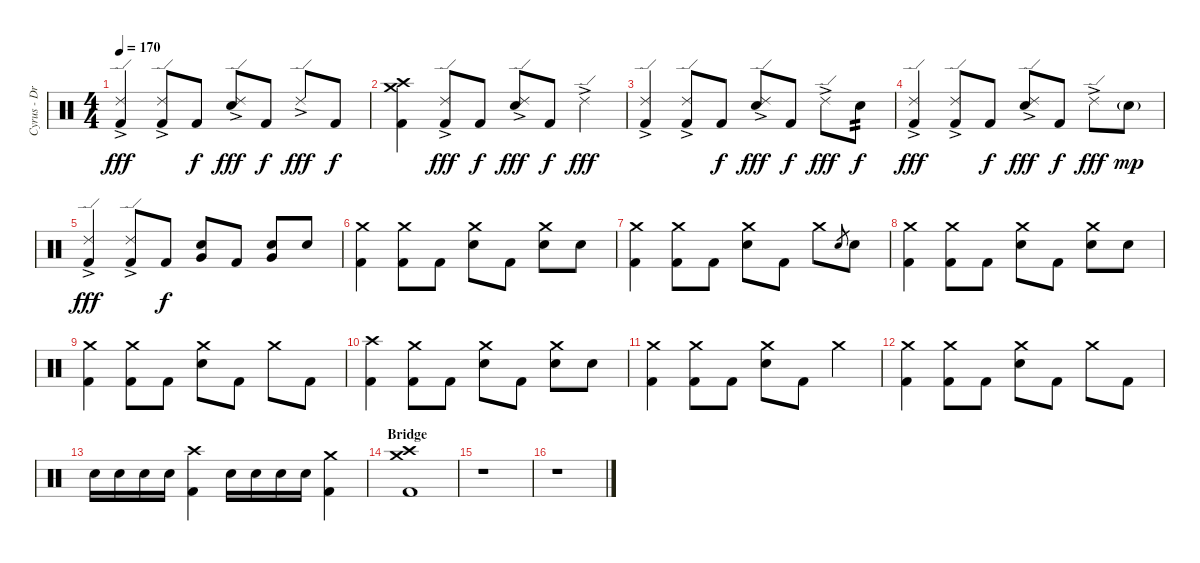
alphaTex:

\track ("Cyrus - Drums" "Cyrus - Dr") {instrument percussion}
\staff {score}
\articulation defaults
\ts (4 4)
\tempo 170
\clef neutral
\ks c
("Ride (edge) 2"{ac} "Kick (hit) 2").4{dy fff} ("Ride (edge) 2"{ac} "Kick (hit) 2").8 "Kick (hit) 2".8{dy f} ("Ride (edge) 2"{ac} "Electric Snare (hit)").8{dy fff} "Kick (hit) 2".8{dy f} "Ride (edge) 2"{ac}.8{dy fff} "Kick (hit) 2".8{dy f} |
("Crash high (hit)" "Crash medium (hit)" "Kick (hit) 2").4 ("Ride (edge) 2"{ac} "Kick (hit) 2").8{dy fff} "Kick (hit) 2".8{dy f} ("Ride (edge) 2"{ac} "Electric Snare (hit)").8{dy fff} "Kick (hit) 2".8{dy f} "Ride (edge) 2"{ac}.4{dy fff} |
("Ride (edge) 2"{ac} "Kick (hit) 2").4 ("Ride (edge) 2"{ac} "Kick (hit) 2").8 "Kick (hit) 2".8{dy f} ("Ride (edge) 2"{ac} "Electric Snare (hit)").8{dy fff} "Kick (hit) 2".8{dy f} "Ride (edge) 2"{ac}.8{dy fff} "Electric Snare (hit)".8{tp 2 dy f} |
("Ride (edge) 2"{ac} "Kick (hit) 2").4{dy fff} ("Ride (edge) 2"{ac} "Kick (hit) 2").8 "Kick (hit) 2".8{dy f} ("Ride (edge) 2"{ac} "Electric Snare (hit)").8{dy fff} "Kick (hit) 2".8{dy f} "Ride (edge) 2"{ac}.8{dy fff} "Electric Snare (hit)"{g}.8{dy mp} |
("Ride (edge) 2"{ac} "Kick (hit) 2").4{dy fff} ("Ride (edge) 2"{ac} "Kick (hit) 2").8 "Kick (hit) 2".8{dy f} ("Very Low Tom (hit)" "Electric Snare (hit)").8 "Kick (hit) 2".8 ("Very Low Tom (hit)" "Electric Snare (hit)").8 "Electric Snare (hit)".8 |
("Crash medium (hit)" "Kick (hit) 2").4 ("Crash medium (hit)" "Kick (hit) 2").8 "Kick (hit) 2".8 ("Crash medium (hit)" "Electric Snare (hit)").8 "Kick (hit) 2".8 ("Crash medium (hit)" "Electric Snare (hit)").8 "Electric Snare (hit)".8 |
("Crash medium (hit)" "Kick (hit) 2").4 ("Crash medium (hit)" "Kick (hit) 2").8 "Kick (hit) 2".8 ("Crash medium (hit)" "Electric Snare (hit)").8 "Kick (hit) 2".8 "Crash medium (hit)".8 "Electric Snare (hit)".8{gr} "Electric Snare (hit)".8 |
("Crash medium (hit)" "Kick (hit) 2").4 ("Crash medium (hit)" "Kick (hit) 2").8 "Kick (hit) 2".8 ("Crash medium (hit)" "Electric Snare (hit)").8 "Kick (hit) 2".8 ("Crash medium (hit)" "Electric Snare (hit)").8 "Electric Snare (hit)".8 |
("Crash medium (hit)" "Kick (hit) 2").4 ("Crash medium (hit)" "Kick (hit) 2").8 "Kick (hit) 2".8 ("Crash medium (hit)" "Electric Snare (hit)").8 "Kick (hit) 2".8 "Crash medium (hit)".8 "Kick (hit) 2".8 |
("Crash high (hit)" "Kick (hit) 2").4 ("Crash medium (hit)" "Kick (hit) 2").8 "Kick (hit) 2".8 ("Crash medium (hit)" "Electric Snare (hit)").8 "Kick (hit) 2".8 ("Crash medium (hit)" "Electric Snare (hit)").8 "Electric Snare (hit)".8 |
("Crash medium (hit)" "Kick (hit) 2").4 ("Crash medium (hit)" "Kick (hit) 2").8 "Kick (hit) 2".8 ("Crash medium (hit)" "Electric Snare (hit)").8 "Kick (hit) 2".8 "Crash medium (hit)".4 |
("Crash medium (hit)" "Kick (hit) 2").4 ("Crash medium (hit)" "Kick (hit) 2").8 "Kick (hit) 2".8 ("Crash medium (hit)" "Electric Snare (hit)").8 "Kick (hit) 2".8 "Crash medium (hit)".8 "Kick (hit) 2".8 |
"Electric Snare (hit)".16 "Electric Snare (hit)".16 "Electric Snare (hit)".16 "Electric Snare (hit)".16 ("Crash high (hit)" "Kick (hit) 2").4 "Electric Snare (hit)".16 "Electric Snare (hit)".16 "Electric Snare (hit)".16 "Electric Snare (hit)".16 ("Crash medium (hit)" "Kick (hit) 2").4 |
\section ("" "Bridge")
("Crash high (hit)" "Crash medium (hit)" "Kick (hit) 2").1 |
r.1 |
r.1
